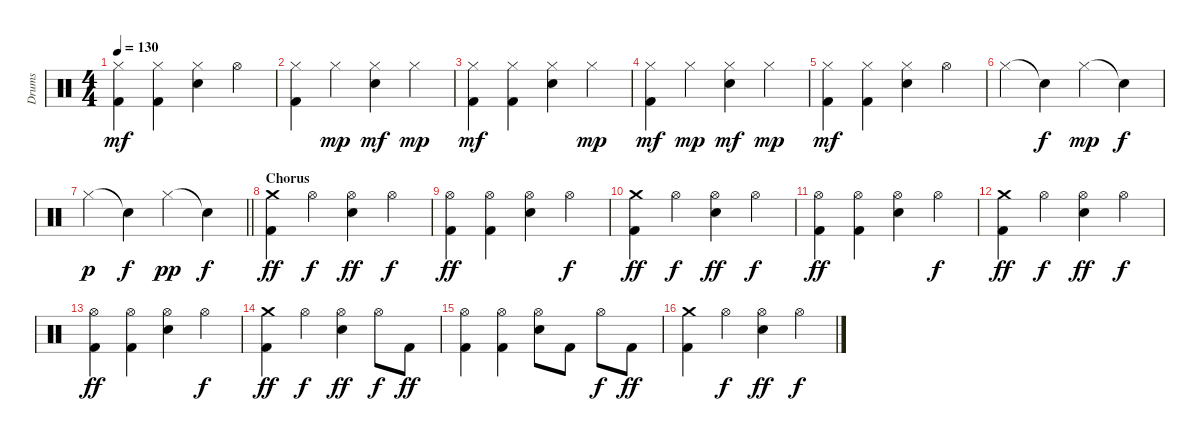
\track ("Drums" "Drums") {instrument percussion}
\staff {score}
\articulation defaults
\ts (4 4)
\tempo 130
\clef neutral
\ks c
("Hi-Hat (closed)" "Kick (hit) 2").4{dy mf} ("Hi-Hat (closed)" "Kick (hit) 2").4 ("Hi-Hat (closed)" "Snare (hit) 2").4 "Hi-Hat (open)".4 |
("Hi-Hat (closed)" "Kick (hit) 2").4 "Hi-Hat (closed)".4{dy mp} ("Hi-Hat (closed)" "Snare (hit) 2").4{dy mf} "Hi-Hat (closed)".4{dy mp} |
("Hi-Hat (closed)" "Kick (hit) 2").4{dy mf} ("Hi-Hat (closed)" "Kick (hit) 2").4 ("Hi-Hat (closed)" "Snare (hit) 2").4 "Hi-Hat (closed)".4{dy mp} |
("Hi-Hat (closed)" "Kick (hit) 2").4{dy mf} "Hi-Hat (closed)".4{dy mp} ("Hi-Hat (closed)" "Snare (hit) 2").4{dy mf} "Hi-Hat (closed)".4{dy mp} |
("Hi-Hat (closed)" "Kick (hit) 2").4{dy mf} ("Hi-Hat (closed)" "Kick (hit) 2").4 ("Hi-Hat (closed)" "Snare (hit) 2").4 "Hi-Hat (open)".4 |
"Hi-Hat (closed)".4 "Snare (hit)"{t}.4{dy f} "Hi-Hat (closed)".4{dy mp} "Snare (hit)"{t}.4{dy f} |
\barLineRight lightlight "Hi-Hat (closed)".4{dy p} "Snare (hit)"{t}.4{dy f} "Hi-Hat (closed)".4{dy pp} "Snare (hit)"{t}.4{dy f}
|
\section ("" "Chorus")
("Crash medium (hit)" "Kick (hit) 2").4{dy ff} "Hi-Hat (open)".4{dy f} ("Hi-Hat (open)" "Snare (hit) 2").4{dy ff} "Hi-Hat (open)".4{dy f} |
("Hi-Hat (open)" "Kick (hit) 2").4{dy ff} ("Hi-Hat (open)" "Kick (hit) 2").4 ("Hi-Hat (open)" "Snare (hit) 2").4 "Hi-Hat (open)".4{dy f} |
("Crash medium (hit)" "Kick (hit) 2").4{dy ff} "Hi-Hat (open)".4{dy f} ("Hi-Hat (open)" "Snare (hit) 2").4{dy ff} "Hi-Hat (open)".4{dy f} |
("Hi-Hat (open)" "Kick (hit) 2").4{dy ff} ("Hi-Hat (open)" "Kick (hit) 2").4 ("Hi-Hat (open)" "Snare (hit) 2").4 "Hi-Hat (open)".4{dy f} |
("Crash medium (hit)" "Kick (hit) 2").4{dy ff} "Hi-Hat (open)".4{dy f} ("Hi-Hat (open)" "Snare (hit) 2").4{dy ff} "Hi-Hat (open)".4{dy f} |
("Hi-Hat (open)" "Kick (hit) 2").4{dy ff} ("Hi-Hat (open)" "Kick (hit) 2").4 ("Hi-Hat (open)" "Snare (hit) 2").4 "Hi-Hat (open)".4{dy f} |
("Crash medium (hit)" "Kick (hit) 2").4{dy ff} "Hi-Hat (open)".4{dy f} ("Hi-Hat (open)" "Snare (hit) 2").4{dy ff} "Hi-Hat (open)".8{dy f} "Kick (hit) 2".8{dy ff} |
("Hi-Hat (open)" "Kick (hit) 2").4 ("Hi-Hat (open)" "Kick (hit) 2").4 ("Hi-Hat (open)" "Snare (hit) 2").8 "Kick (hit) 2".8 "Hi-Hat (open)".8{dy f} "Kick (hit) 2".8{dy ff} |
("Crash medium (hit)" "Kick (hit) 2").4 "Hi-Hat (open)".4{dy f} ("Hi-Hat (open)" "Snare (hit) 2").4{dy ff} "Hi-Hat (open)".4{dy f}
